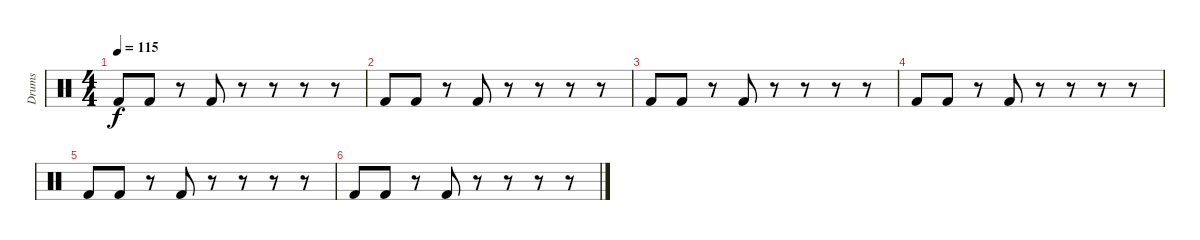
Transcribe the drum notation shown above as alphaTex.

\track ("Drums" "Drums") {instrument percussion}
\staff {score}
\articulation defaults
\ts (4 4)
\tempo 115
\clef neutral
\ks c "Kick (hit) 2".8{dy f} "Kick (hit) 2".8
r.8 "Kick (hit) 2".8 r.8 r.8 r.8 r.8 |
"Kick (hit) 2".8 "Kick (hit) 2".8 r.8 "Kick (hit) 2".8 r.8 r.8 r.8 r.8 |
"Kick (hit) 2".8{volume 0} "Kick (hit) 2".8 r.8 "Kick (hit) 2".8 r.8 r.8 r.8 r.8 |
"Kick (hit) 2".8 "Kick (hit) 2".8 r.8 "Kick (hit) 2".8 r.8 r.8 r.8 r.8 |
"Kick (hit) 2".8 "Kick (hit) 2".8 r.8 "Kick (hit) 2".8 r.8 r.8 r.8 r.8 |
"Kick (hit) 2".8 "Kick (hit) 2".8 r.8 "Kick (hit) 2".8 r.8 r.8 r.8 r.8
